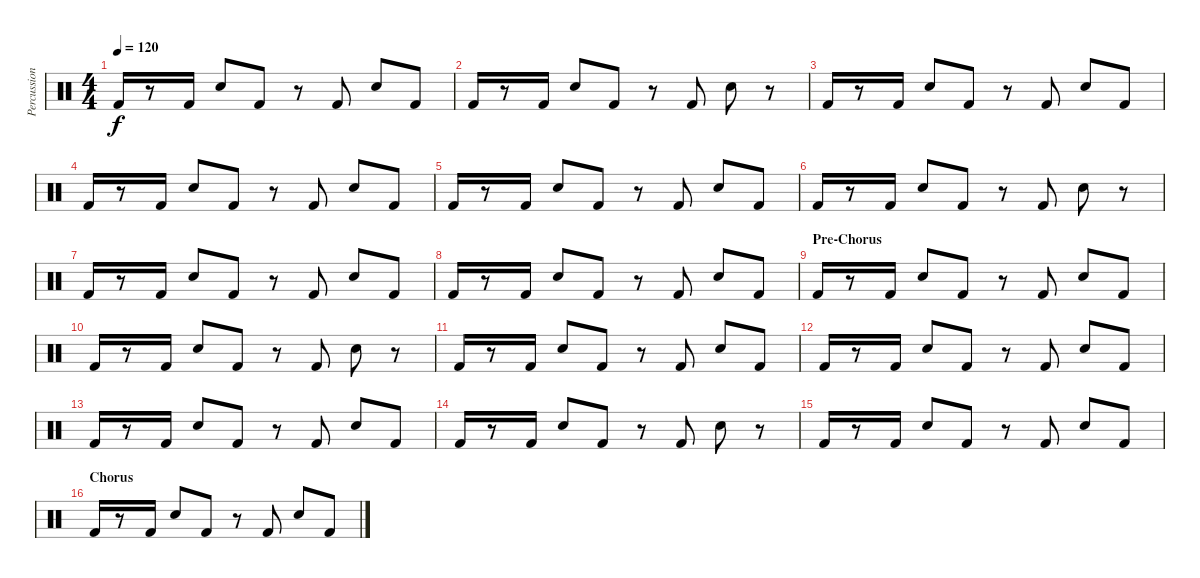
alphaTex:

\track ("Percussion" "Percussion") {instrument percussion}
\staff {score}
\articulation defaults
\ts (4 4)
\tempo 120
\clef neutral
\ks c "Kick (hit) 2".16{dy f}
r.8 "Kick (hit) 2".16 "Electric Snare (hit)".8 "Kick (hit) 2".8 r.8 "Kick (hit) 2".8 "Snare (hit) 2".8 "Kick (hit) 2".8 |
"Kick (hit) 2".16 r.8 "Kick (hit) 2".16 "Electric Snare (hit)".8 "Kick (hit) 2".8 r.8 "Kick (hit) 2".8 "Snare (hit) 2".8 r.8 |
"Kick (hit) 2".16 r.8 "Kick (hit) 2".16 "Electric Snare (hit)".8 "Kick (hit) 2".8 r.8 "Kick (hit) 2".8 "Snare (hit) 2".8 "Kick (hit) 2".8 |
"Kick (hit) 2".16 r.8 "Kick (hit) 2".16 "Electric Snare (hit)".8 "Kick (hit) 2".8 r.8 "Kick (hit) 2".8 "Snare (hit) 2".8 "Kick (hit) 2".8 |
"Kick (hit) 2".16 r.8 "Kick (hit) 2".16 "Electric Snare (hit)".8 "Kick (hit) 2".8 r.8 "Kick (hit) 2".8 "Snare (hit) 2".8 "Kick (hit) 2".8 |
"Kick (hit) 2".16 r.8 "Kick (hit) 2".16 "Electric Snare (hit)".8 "Kick (hit) 2".8 r.8 "Kick (hit) 2".8 "Snare (hit) 2".8 r.8 |
"Kick (hit) 2".16 r.8 "Kick (hit) 2".16 "Electric Snare (hit)".8 "Kick (hit) 2".8 r.8 "Kick (hit) 2".8 "Snare (hit) 2".8 "Kick (hit) 2".8 |
"Kick (hit) 2".16 r.8 "Kick (hit) 2".16 "Electric Snare (hit)".8 "Kick (hit) 2".8 r.8 "Kick (hit) 2".8 "Snare (hit) 2".8 "Kick (hit) 2".8 |
\section ("" "Pre-Chorus")
"Kick (hit) 2".16 r.8 "Kick (hit) 2".16 "Electric Snare (hit)".8 "Kick (hit) 2".8 r.8 "Kick (hit) 2".8 "Snare (hit) 2".8 "Kick (hit) 2".8 |
"Kick (hit) 2".16 r.8 "Kick (hit) 2".16 "Electric Snare (hit)".8 "Kick (hit) 2".8 r.8 "Kick (hit) 2".8 "Snare (hit) 2".8 r.8 |
"Kick (hit) 2".16 r.8 "Kick (hit) 2".16 "Electric Snare (hit)".8 "Kick (hit) 2".8 r.8 "Kick (hit) 2".8 "Snare (hit) 2".8 "Kick (hit) 2".8 |
"Kick (hit) 2".16 r.8 "Kick (hit) 2".16 "Electric Snare (hit)".8 "Kick (hit) 2".8 r.8 "Kick (hit) 2".8 "Snare (hit) 2".8 "Kick (hit) 2".8 |
"Kick (hit) 2".16 r.8 "Kick (hit) 2".16 "Electric Snare (hit)".8 "Kick (hit) 2".8 r.8 "Kick (hit) 2".8 "Snare (hit) 2".8 "Kick (hit) 2".8 |
"Kick (hit) 2".16 r.8 "Kick (hit) 2".16 "Electric Snare (hit)".8 "Kick (hit) 2".8 r.8 "Kick (hit) 2".8 "Snare (hit) 2".8 r.8 |
"Kick (hit) 2".16 r.8 "Kick (hit) 2".16 "Electric Snare (hit)".8 "Kick (hit) 2".8 r.8 "Kick (hit) 2".8 "Snare (hit) 2".8 "Kick (hit) 2".8 |
\section ("" "Chorus")
"Kick (hit) 2".16 r.8 "Kick (hit) 2".16 "Electric Snare (hit)".8 "Kick (hit) 2".8 r.8 "Kick (hit) 2".8 "Snare (hit) 2".8 "Kick (hit) 2".8
